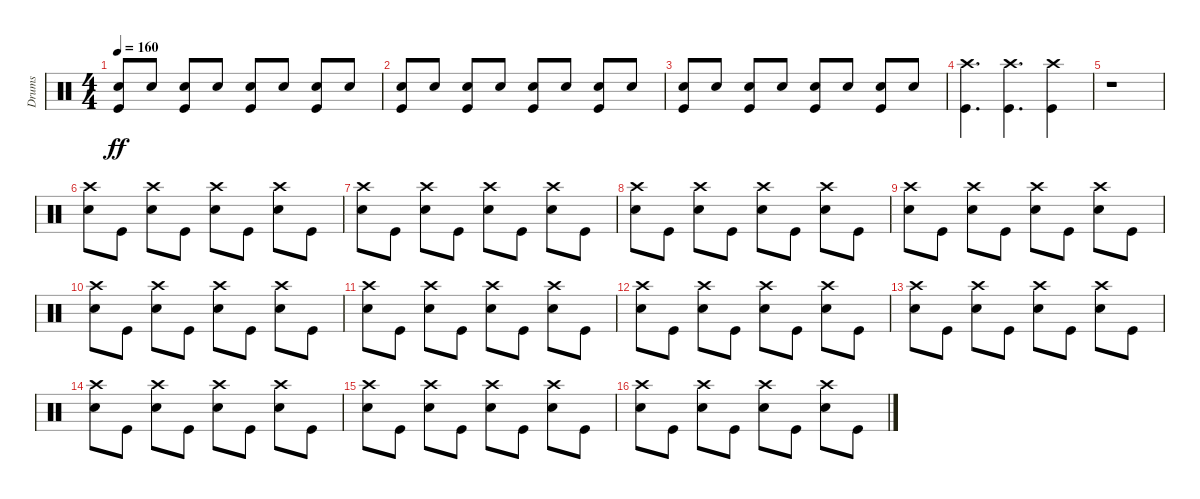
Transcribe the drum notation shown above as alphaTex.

\track ("Drums" "Drums") {instrument percussion}
\staff {score}
\articulation defaults
\ts (4 4)
\tempo 160
\clef neutral
\ks c
("Snare (hit) 2" "Kick (hit)").8{dy ff} "Snare (hit) 2".8 ("Snare (hit) 2" "Kick (hit)").8 "Snare (hit) 2".8 ("Snare (hit) 2" "Kick (hit)").8 "Snare (hit) 2".8 ("Snare (hit) 2" "Kick (hit)").8 "Snare (hit) 2".8 |
("Snare (hit) 2" "Kick (hit)").8 "Snare (hit) 2".8 ("Snare (hit) 2" "Kick (hit)").8 "Snare (hit) 2".8 ("Snare (hit) 2" "Kick (hit)").8 "Snare (hit) 2".8 ("Snare (hit) 2" "Kick (hit)").8 "Snare (hit) 2".8 |
("Snare (hit) 2" "Kick (hit)").8 "Snare (hit) 2".8 ("Snare (hit) 2" "Kick (hit)").8 "Snare (hit) 2".8 ("Snare (hit) 2" "Kick (hit)").8 "Snare (hit) 2".8 ("Snare (hit) 2" "Kick (hit)").8 "Snare (hit) 2".8 |
("Crash high (hit)" "Kick (hit)").4{d} ("Crash high (hit)" "Kick (hit)").4{d} ("Crash high (hit)" "Kick (hit)").4 |
r.1 |
("Crash high (hit)" "Snare (hit) 2").8 "Kick (hit)".8 ("Crash high (hit)" "Snare (hit) 2").8 "Kick (hit)".8 ("Crash high (hit)" "Snare (hit) 2").8 "Kick (hit)".8 ("Crash high (hit)" "Snare (hit) 2").8 "Kick (hit)".8 |
("Crash high (hit)" "Snare (hit) 2").8 "Kick (hit)".8 ("Crash high (hit)" "Snare (hit) 2").8 "Kick (hit)".8 ("Crash high (hit)" "Snare (hit) 2").8 "Kick (hit)".8 ("Crash high (hit)" "Snare (hit) 2").8 "Kick (hit)".8 |
("Crash high (hit)" "Snare (hit) 2").8 "Kick (hit)".8 ("Crash high (hit)" "Snare (hit) 2").8 "Kick (hit)".8 ("Crash high (hit)" "Snare (hit) 2").8 "Kick (hit)".8 ("Crash high (hit)" "Snare (hit) 2").8 "Kick (hit)".8 |
("Crash high (hit)" "Snare (hit) 2").8 "Kick (hit)".8 ("Crash high (hit)" "Snare (hit) 2").8 "Kick (hit)".8 ("Crash high (hit)" "Snare (hit) 2").8 "Kick (hit)".8 ("Crash high (hit)" "Snare (hit) 2").8 "Kick (hit)".8 |
("Crash high (hit)" "Snare (hit) 2").8 "Kick (hit)".8 ("Crash high (hit)" "Snare (hit) 2").8 "Kick (hit)".8 ("Crash high (hit)" "Snare (hit) 2").8 "Kick (hit)".8 ("Crash high (hit)" "Snare (hit) 2").8 "Kick (hit)".8 |
("Crash high (hit)" "Snare (hit) 2").8 "Kick (hit)".8 ("Crash high (hit)" "Snare (hit) 2").8 "Kick (hit)".8 ("Crash high (hit)" "Snare (hit) 2").8 "Kick (hit)".8 ("Crash high (hit)" "Snare (hit) 2").8 "Kick (hit)".8 |
("Crash high (hit)" "Snare (hit) 2").8 "Kick (hit)".8 ("Crash high (hit)" "Snare (hit) 2").8 "Kick (hit)".8 ("Crash high (hit)" "Snare (hit) 2").8 "Kick (hit)".8 ("Crash high (hit)" "Snare (hit) 2").8 "Kick (hit)".8 |
("Crash high (hit)" "Snare (hit) 2").8 "Kick (hit)".8 ("Crash high (hit)" "Snare (hit) 2").8 "Kick (hit)".8 ("Crash high (hit)" "Snare (hit) 2").8 "Kick (hit)".8 ("Crash high (hit)" "Snare (hit) 2").8 "Kick (hit)".8 |
("Crash high (hit)" "Snare (hit) 2").8 "Kick (hit)".8 ("Crash high (hit)" "Snare (hit) 2").8 "Kick (hit)".8 ("Crash high (hit)" "Snare (hit) 2").8 "Kick (hit)".8 ("Crash high (hit)" "Snare (hit) 2").8 "Kick (hit)".8 |
("Crash high (hit)" "Snare (hit) 2").8 "Kick (hit)".8 ("Crash high (hit)" "Snare (hit) 2").8 "Kick (hit)".8 ("Crash high (hit)" "Snare (hit) 2").8 "Kick (hit)".8 ("Crash high (hit)" "Snare (hit) 2").8 "Kick (hit)".8 |
("Crash high (hit)" "Snare (hit) 2").8 "Kick (hit)".8 ("Crash high (hit)" "Snare (hit) 2").8 "Kick (hit)".8 ("Crash high (hit)" "Snare (hit) 2").8 "Kick (hit)".8 ("Crash high (hit)" "Snare (hit) 2").8 "Kick (hit)".8
